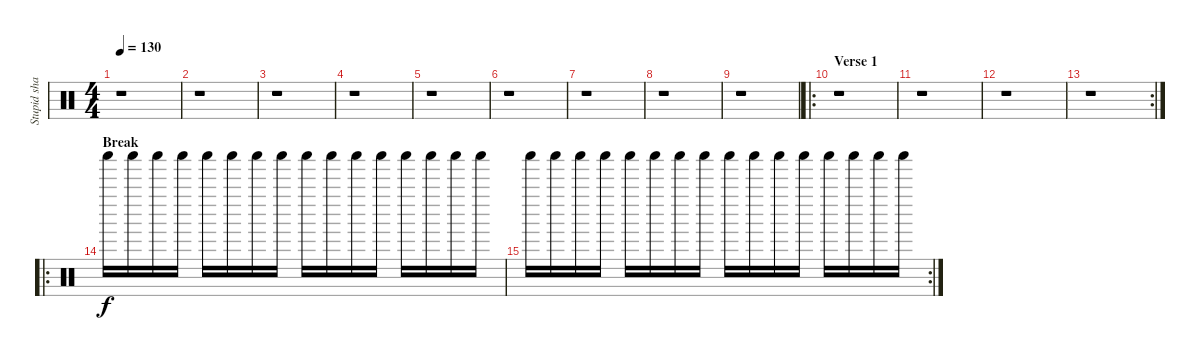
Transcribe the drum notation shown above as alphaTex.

\track ("Stupid shaker" "Stupid sha") {instrument percussion}
\staff {score}
\articulation defaults
\ts (4 4)
\tempo 130
\clef neutral
\ks c
r.1{dy f} |
r.1 |
r.1 |
r.1 |
r.1 |
r.1 |
r.1 |
r.1 |
r.1 |
\ro
\section ("" "Verse 1")
r.1 |
r.1 |
r.1 |
\rc 2
r.1 |
\ro
\section ("" "Break")
"Shaker (hit)".16 "Shaker (hit)".16 "Shaker (hit)".16 "Shaker (hit)".16 "Shaker (hit)".16 "Shaker (hit)".16 "Shaker (hit)".16 "Shaker (hit)".16 "Shaker (hit)".16 "Shaker (hit)".16 "Shaker (hit)".16 "Shaker (hit)".16 "Shaker (hit)".16 "Shaker (hit)".16 "Shaker (hit)".16 "Shaker (hit)".16 |
\rc 2 "Shaker (hit)".16 "Shaker (hit)".16 "Shaker (hit)".16 "Shaker (hit)".16 "Shaker (hit)".16 "Shaker (hit)".16 "Shaker (hit)".16 "Shaker (hit)".16 "Shaker (hit)".16 "Shaker (hit)".16 "Shaker (hit)".16 "Shaker (hit)".16 "Shaker (hit)".16 "Shaker (hit)".16 "Shaker (hit)".16 "Shaker (hit)".16
